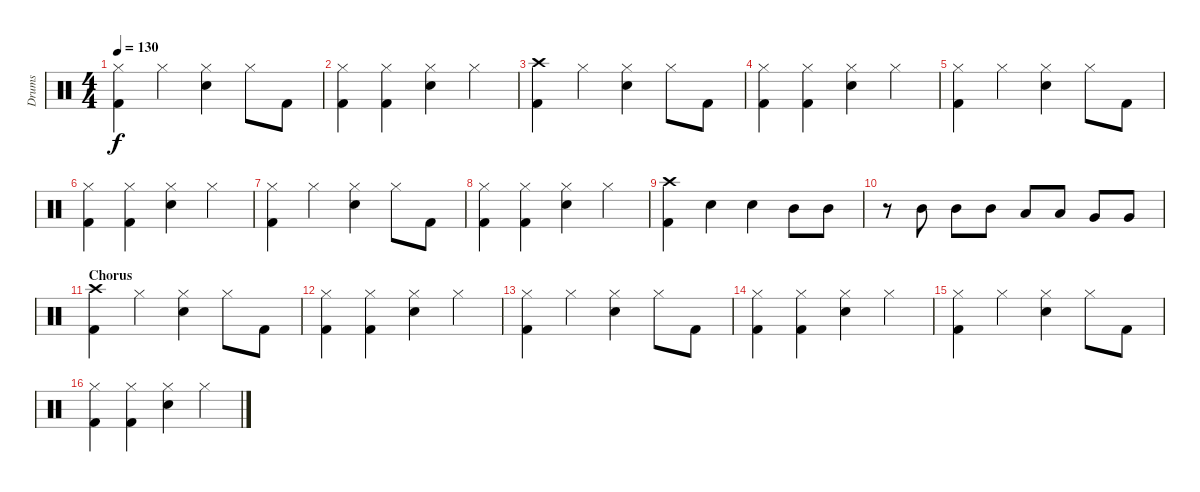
\track ("Drums" "Drums") {instrument percussion}
\staff {score}
\articulation defaults
\ts (4 4)
\tempo 130
\clef neutral
\ks c
("Hi-Hat (closed)" "Kick (hit) 2").4{dy f} "Hi-Hat (closed)".4 ("Hi-Hat (closed)" "Snare (hit) 2").4 "Hi-Hat (closed)".8 "Kick (hit) 2".8 |
("Hi-Hat (closed)" "Kick (hit) 2").4 ("Hi-Hat (closed)" "Kick (hit) 2").4 ("Hi-Hat (closed)" "Snare (hit) 2").4 "Hi-Hat (closed)".4 |
("Crash high (hit)" "Kick (hit) 2").4 "Hi-Hat (closed)".4 ("Hi-Hat (closed)" "Snare (hit) 2").4 "Hi-Hat (closed)".8 "Kick (hit) 2".8 |
("Hi-Hat (closed)" "Kick (hit) 2").4 ("Hi-Hat (closed)" "Kick (hit) 2").4 ("Hi-Hat (closed)" "Snare (hit) 2").4 "Hi-Hat (closed)".4 |
("Hi-Hat (closed)" "Kick (hit) 2").4 "Hi-Hat (closed)".4 ("Hi-Hat (closed)" "Snare (hit) 2").4 "Hi-Hat (closed)".8 "Kick (hit) 2".8 |
("Hi-Hat (closed)" "Kick (hit) 2").4 ("Hi-Hat (closed)" "Kick (hit) 2").4 ("Hi-Hat (closed)" "Snare (hit) 2").4 "Hi-Hat (closed)".4 |
("Hi-Hat (closed)" "Kick (hit) 2").4 "Hi-Hat (closed)".4 ("Hi-Hat (closed)" "Snare (hit) 2").4 "Hi-Hat (closed)".8 "Kick (hit) 2".8 |
("Hi-Hat (closed)" "Kick (hit) 2").4 ("Hi-Hat (closed)" "Kick (hit) 2").4 ("Hi-Hat (closed)" "Snare (hit) 2").4 "Hi-Hat (closed)".4 |
("Crash high (hit)" "Kick (hit) 2").4 "Snare (hit) 2".4 "Snare (hit) 2".4 "Mid Tom (hit)".8 "Mid Tom (hit)".8 |
r.8 "Mid Tom (hit)".8 "Mid Tom (hit)".8 "Mid Tom (hit)".8 "Low Tom (hit)".8 "Low Tom (hit)".8 "Very Low Tom (hit)".8 "Very Low Tom (hit)".8 |
\section ("" "Chorus")
("Crash high (hit)" "Kick (hit) 2").4 "Hi-Hat (closed)".4 ("Hi-Hat (closed)" "Snare (hit) 2").4 "Hi-Hat (closed)".8 "Kick (hit) 2".8 |
("Hi-Hat (closed)" "Kick (hit) 2").4 ("Hi-Hat (closed)" "Kick (hit) 2").4 ("Hi-Hat (closed)" "Snare (hit) 2").4 "Hi-Hat (closed)".4 |
("Hi-Hat (closed)" "Kick (hit) 2").4 "Hi-Hat (closed)".4 ("Hi-Hat (closed)" "Snare (hit) 2").4 "Hi-Hat (closed)".8 "Kick (hit) 2".8 |
("Hi-Hat (closed)" "Kick (hit) 2").4 ("Hi-Hat (closed)" "Kick (hit) 2").4 ("Hi-Hat (closed)" "Snare (hit) 2").4 "Hi-Hat (closed)".4 |
("Hi-Hat (closed)" "Kick (hit) 2").4 "Hi-Hat (closed)".4 ("Hi-Hat (closed)" "Snare (hit) 2").4 "Hi-Hat (closed)".8 "Kick (hit) 2".8 |
("Hi-Hat (closed)" "Kick (hit) 2").4 ("Hi-Hat (closed)" "Kick (hit) 2").4 ("Hi-Hat (closed)" "Snare (hit) 2").4 "Hi-Hat (closed)".4
